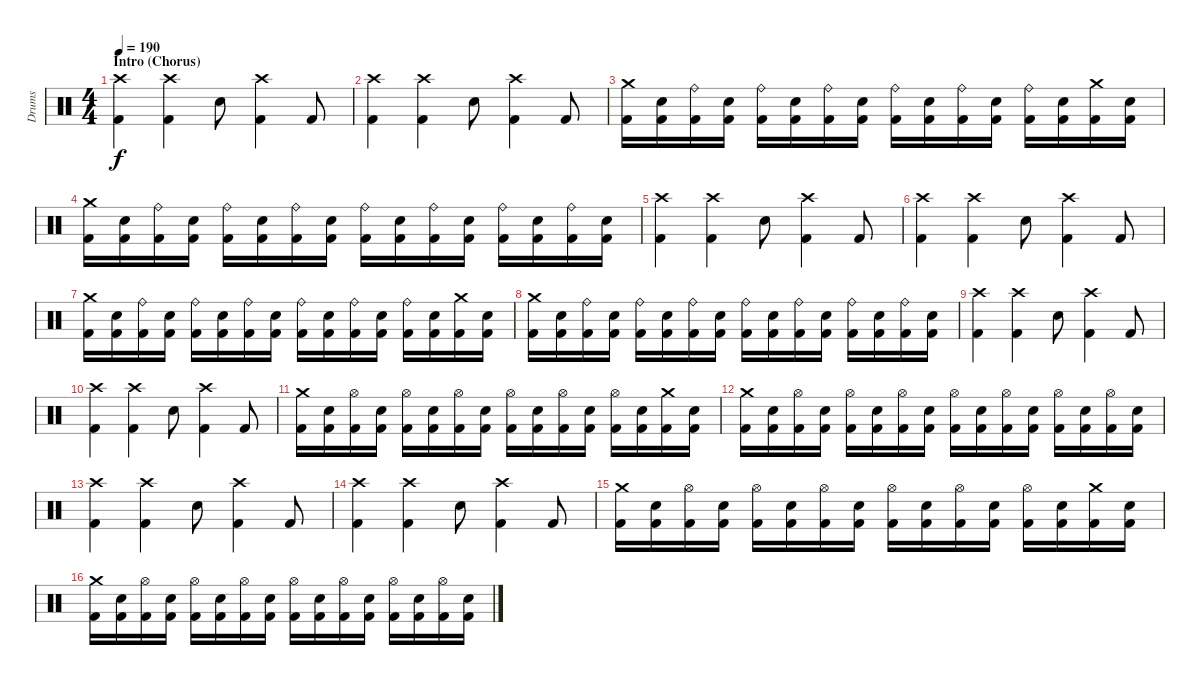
\track ("Drums" "Drums") {instrument percussion}
\staff {score}
\articulation defaults
\ts (4 4)
\section ("" "Intro (Chorus)")
\tempo 190
\clef neutral
\ks c
("Crash high (hit)" "Kick (hit) 2").4{dy f} ("Crash high (hit)" "Kick (hit) 2").4 "Snare (hit) 2".8 ("Crash high (hit)" "Kick (hit) 2").4 "Kick (hit) 2".8 |
("Crash high (hit)" "Kick (hit) 2").4 ("Crash high (hit)" "Kick (hit) 2").4 "Snare (hit) 2".8 ("Crash high (hit)" "Kick (hit) 2").4 "Kick (hit) 2".8 |
("Crash medium (hit)" "Kick (hit) 2").16 ("Snare (hit) 2" "Kick (hit) 2").16 ("Ride (bell)" "Kick (hit) 2").16 ("Snare (hit) 2" "Kick (hit) 2").16 ("Ride (bell)" "Kick (hit) 2").16 ("Snare (hit) 2" "Kick (hit) 2").16 ("Ride (bell)" "Kick (hit) 2").16 ("Snare (hit) 2" "Kick (hit) 2").16 ("Ride (bell)" "Kick (hit) 2").16 ("Snare (hit) 2" "Kick (hit) 2").16 ("Ride (bell)" "Kick (hit) 2").16 ("Snare (hit) 2" "Kick (hit) 2").16 ("Ride (bell)" "Kick (hit) 2").16 ("Snare (hit) 2" "Kick (hit) 2").16 ("Crash medium (hit)" "Kick (hit) 2").16 ("Snare (hit) 2" "Kick (hit) 2").16 |
("Crash medium (hit)" "Kick (hit) 2").16 ("Snare (hit) 2" "Kick (hit) 2").16 ("Ride (bell)" "Kick (hit) 2").16 ("Snare (hit) 2" "Kick (hit) 2").16 ("Ride (bell)" "Kick (hit) 2").16 ("Snare (hit) 2" "Kick (hit) 2").16 ("Ride (bell)" "Kick (hit) 2").16 ("Snare (hit) 2" "Kick (hit) 2").16 ("Ride (bell)" "Kick (hit) 2").16 ("Snare (hit) 2" "Kick (hit) 2").16 ("Ride (bell)" "Kick (hit) 2").16 ("Snare (hit) 2" "Kick (hit) 2").16 ("Ride (bell)" "Kick (hit) 2").16 ("Snare (hit) 2" "Kick (hit) 2").16 ("Ride (bell)" "Kick (hit) 2").16 ("Snare (hit) 2" "Kick (hit) 2").16 |
("Crash high (hit)" "Kick (hit) 2").4 ("Crash high (hit)" "Kick (hit) 2").4 "Snare (hit) 2".8 ("Crash high (hit)" "Kick (hit) 2").4 "Kick (hit) 2".8 |
("Crash high (hit)" "Kick (hit) 2").4 ("Crash high (hit)" "Kick (hit) 2").4 "Snare (hit) 2".8 ("Crash high (hit)" "Kick (hit) 2").4 "Kick (hit) 2".8 |
("Crash medium (hit)" "Kick (hit) 2").16 ("Snare (hit) 2" "Kick (hit) 2").16 ("Ride (bell)" "Kick (hit) 2").16 ("Snare (hit) 2" "Kick (hit) 2").16 ("Ride (bell)" "Kick (hit) 2").16 ("Snare (hit) 2" "Kick (hit) 2").16 ("Ride (bell)" "Kick (hit) 2").16 ("Snare (hit) 2" "Kick (hit) 2").16 ("Ride (bell)" "Kick (hit) 2").16 ("Snare (hit) 2" "Kick (hit) 2").16 ("Ride (bell)" "Kick (hit) 2").16 ("Snare (hit) 2" "Kick (hit) 2").16 ("Ride (bell)" "Kick (hit) 2").16 ("Snare (hit) 2" "Kick (hit) 2").16 ("Crash medium (hit)" "Kick (hit) 2").16 ("Snare (hit) 2" "Kick (hit) 2").16 |
("Crash medium (hit)" "Kick (hit) 2").16 ("Snare (hit) 2" "Kick (hit) 2").16 ("Ride (bell)" "Kick (hit) 2").16 ("Snare (hit) 2" "Kick (hit) 2").16 ("Ride (bell)" "Kick (hit) 2").16 ("Snare (hit) 2" "Kick (hit) 2").16 ("Ride (bell)" "Kick (hit) 2").16 ("Snare (hit) 2" "Kick (hit) 2").16 ("Ride (bell)" "Kick (hit) 2").16 ("Snare (hit) 2" "Kick (hit) 2").16 ("Ride (bell)" "Kick (hit) 2").16 ("Snare (hit) 2" "Kick (hit) 2").16 ("Ride (bell)" "Kick (hit) 2").16 ("Snare (hit) 2" "Kick (hit) 2").16 ("Ride (bell)" "Kick (hit) 2").16 ("Snare (hit) 2" "Kick (hit) 2").16 |
("Crash high (hit)" "Kick (hit) 2").4 ("Crash high (hit)" "Kick (hit) 2").4 "Snare (hit) 2".8 ("Crash high (hit)" "Kick (hit) 2").4 "Kick (hit) 2".8 |
("Crash high (hit)" "Kick (hit) 2").4 ("Crash high (hit)" "Kick (hit) 2").4 "Snare (hit) 2".8 ("Crash high (hit)" "Kick (hit) 2").4 "Kick (hit) 2".8 |
("Crash medium (hit)" "Kick (hit) 2").16 ("Snare (hit) 2" "Kick (hit) 2").16 ("Hi-Hat (open)" "Kick (hit) 2").16 ("Snare (hit) 2" "Kick (hit) 2").16 ("Hi-Hat (open)" "Kick (hit) 2").16 ("Snare (hit) 2" "Kick (hit) 2").16 ("Hi-Hat (open)" "Kick (hit) 2").16 ("Snare (hit) 2" "Kick (hit) 2").16 ("Hi-Hat (open)" "Kick (hit) 2").16 ("Snare (hit) 2" "Kick (hit) 2").16 ("Hi-Hat (open)" "Kick (hit) 2").16 ("Snare (hit) 2" "Kick (hit) 2").16 ("Hi-Hat (open)" "Kick (hit) 2").16 ("Snare (hit) 2" "Kick (hit) 2").16 ("Crash medium (hit)" "Kick (hit) 2").16 ("Snare (hit) 2" "Kick (hit) 2").16 |
("Crash medium (hit)" "Kick (hit) 2").16 ("Snare (hit) 2" "Kick (hit) 2").16 ("Hi-Hat (open)" "Kick (hit) 2").16 ("Snare (hit) 2" "Kick (hit) 2").16 ("Hi-Hat (open)" "Kick (hit) 2").16 ("Snare (hit) 2" "Kick (hit) 2").16 ("Hi-Hat (open)" "Kick (hit) 2").16 ("Snare (hit) 2" "Kick (hit) 2").16 ("Hi-Hat (open)" "Kick (hit) 2").16 ("Snare (hit) 2" "Kick (hit) 2").16 ("Hi-Hat (open)" "Kick (hit) 2").16 ("Snare (hit) 2" "Kick (hit) 2").16 ("Hi-Hat (open)" "Kick (hit) 2").16 ("Snare (hit) 2" "Kick (hit) 2").16 ("Hi-Hat (open)" "Kick (hit) 2").16 ("Snare (hit) 2" "Kick (hit) 2").16 |
("Crash high (hit)" "Kick (hit) 2").4 ("Crash high (hit)" "Kick (hit) 2").4 "Snare (hit) 2".8 ("Crash high (hit)" "Kick (hit) 2").4 "Kick (hit) 2".8 |
("Crash high (hit)" "Kick (hit) 2").4 ("Crash high (hit)" "Kick (hit) 2").4 "Snare (hit) 2".8 ("Crash high (hit)" "Kick (hit) 2").4 "Kick (hit) 2".8 |
("Crash medium (hit)" "Kick (hit) 2").16 ("Snare (hit) 2" "Kick (hit) 2").16 ("Hi-Hat (open)" "Kick (hit) 2").16 ("Snare (hit) 2" "Kick (hit) 2").16 ("Hi-Hat (open)" "Kick (hit) 2").16 ("Snare (hit) 2" "Kick (hit) 2").16 ("Hi-Hat (open)" "Kick (hit) 2").16 ("Snare (hit) 2" "Kick (hit) 2").16 ("Hi-Hat (open)" "Kick (hit) 2").16 ("Snare (hit) 2" "Kick (hit) 2").16 ("Hi-Hat (open)" "Kick (hit) 2").16 ("Snare (hit) 2" "Kick (hit) 2").16 ("Hi-Hat (open)" "Kick (hit) 2").16 ("Snare (hit) 2" "Kick (hit) 2").16 ("Crash medium (hit)" "Kick (hit) 2").16 ("Snare (hit) 2" "Kick (hit) 2").16 |
("Crash medium (hit)" "Kick (hit) 2").16 ("Snare (hit) 2" "Kick (hit) 2").16 ("Hi-Hat (open)" "Kick (hit) 2").16 ("Snare (hit) 2" "Kick (hit) 2").16 ("Hi-Hat (open)" "Kick (hit) 2").16 ("Snare (hit) 2" "Kick (hit) 2").16 ("Hi-Hat (open)" "Kick (hit) 2").16 ("Snare (hit) 2" "Kick (hit) 2").16 ("Hi-Hat (open)" "Kick (hit) 2").16 ("Snare (hit) 2" "Kick (hit) 2").16 ("Hi-Hat (open)" "Kick (hit) 2").16 ("Snare (hit) 2" "Kick (hit) 2").16 ("Hi-Hat (open)" "Kick (hit) 2").16 ("Snare (hit) 2" "Kick (hit) 2").16 ("Hi-Hat (open)" "Kick (hit) 2").16 ("Snare (hit) 2" "Kick (hit) 2").16
